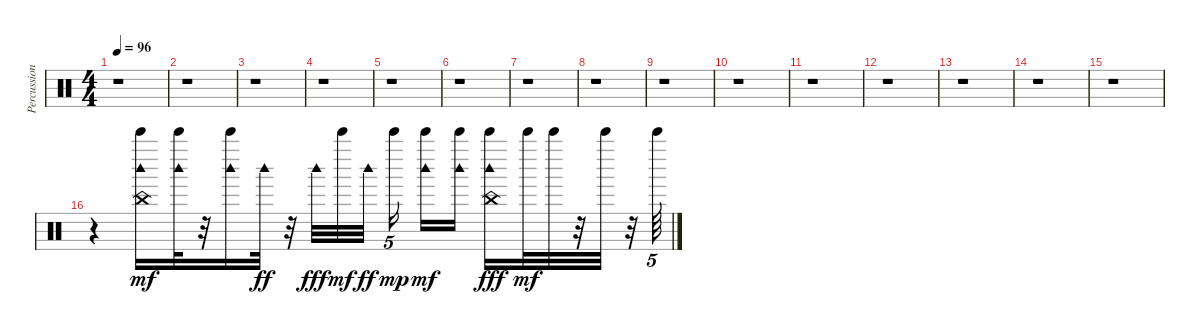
\track ("Percussion" "Percussion") {instrument percussion}
\staff {score}
\articulation defaults
\ts (4 4)
\tempo 96
\clef neutral
\ks c
r.1{dy mf} |
r.1 |
r.1 |
r.1 |
r.1 |
r.1 |
r.1 |
r.1 |
r.1 |
r.1 |
r.1 |
r.1 |
r.1 |
r.1 |
r.1 |
r.4 ("China (hit)" "Bell Tree (hit)" "Woodblock high (hit)").16 ("Woodblock high (hit)" "Bell Tree (hit)").32 r.32 ("Woodblock high (hit)" "Bell Tree (hit)").16 "Woodblock high (hit)".32{dy ff} r.32 "Woodblock high (hit)".32{dy fff} "Bell Tree (hit)".32{dy mf} "Woodblock high (hit)".32{dy ff} "Bell Tree (hit)".16{tu (5 4) dy mp} ("Woodblock high (hit)" "Bell Tree (hit)").16{dy mf} ("Woodblock high (hit)" "Bell Tree (hit)").16 ("Bell Tree (hit)" "China (hit)" "Woodblock high (hit)").16{dy fff} "Bell Tree (hit)".32{dy mf} "Bell Tree (hit)".32 r.32 "Bell Tree (hit)".32 r.32 "Bell Tree (hit)".64{tu (5 4)}
